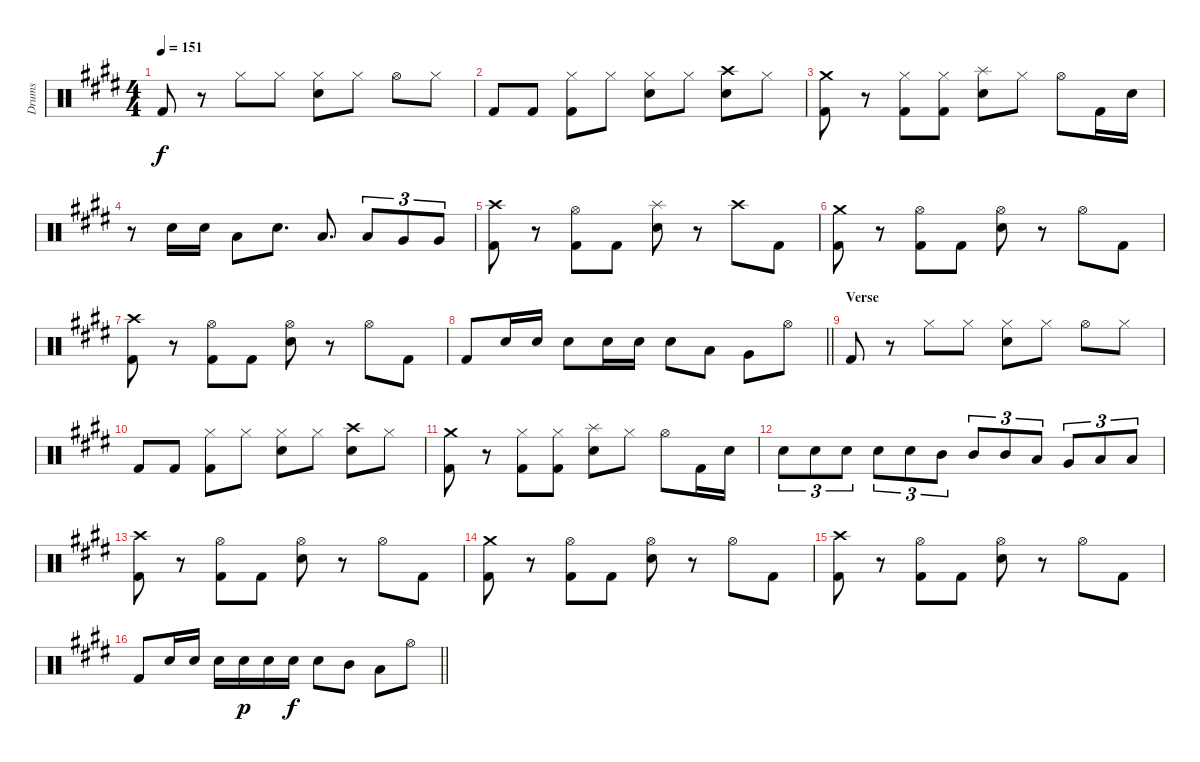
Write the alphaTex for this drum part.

\track ("Drums" "Drums") {instrument percussion}
\staff {score}
\articulation defaults
\ts (4 4)
\tempo 151
\clef neutral
\ks e "Kick (hit) 2".8{dy f}
r.8 "Hi-Hat (closed)".8 "Hi-Hat (closed)".8 ("Hi-Hat (closed)" "Electric Snare (hit)").8 "Hi-Hat (closed)".8 "Hi-Hat (open)".8 "Hi-Hat (closed)".8 |
"Kick (hit) 2".8 "Kick (hit) 2".8 ("Hi-Hat (closed)" "Kick (hit) 2").8 "Hi-Hat (closed)".8 ("Hi-Hat (closed)" "Electric Snare (hit)").8 "Hi-Hat (closed)".8 ("Crash high (hit)" "Electric Snare (hit)").8 "Hi-Hat (closed)".8 |
("Crash medium (hit)" "Kick (hit) 2").8 r.8 ("Hi-Hat (closed)" "Kick (hit) 2").8 ("Hi-Hat (closed)" "Kick (hit) 2").8 ("Splash (hit)" "Electric Snare (hit)").8 "Hi-Hat (closed)".8 "Hi-Hat (open)".8 "Kick (hit) 2".16 "Electric Snare (hit)".16 |
r.8 "Electric Snare (hit)".16 "Electric Snare (hit)".16 "Low Tom (hit)".8 "Electric Snare (hit)".8{d} "Low Tom (hit)".8{d} "Low Tom (hit)".8{tu (3 2)} "Very Low Tom (hit)".8{tu (3 2)} "Very Low Tom (hit)".8{tu (3 2)} |
("Crash high (hit)" "Kick (hit) 2").8 r.8 ("Hi-Hat (open)" "Kick (hit) 2").8 "Kick (hit) 2".8 ("Splash (hit)" "Electric Snare (hit)").8 r.8 "Crash high (hit)".8 "Kick (hit) 2".8 |
("Crash medium (hit)" "Kick (hit) 2").8 r.8 ("Hi-Hat (open)" "Kick (hit) 2").8 "Kick (hit) 2".8 ("Hi-Hat (open)" "Electric Snare (hit)").8 r.8 "Hi-Hat (open)".8 "Kick (hit) 2".8 |
("Crash high (hit)" "Kick (hit) 2").8 r.8 ("Hi-Hat (open)" "Kick (hit) 2").8 "Kick (hit) 2".8 ("Hi-Hat (open)" "Electric Snare (hit)").8 r.8 "Hi-Hat (open)".8 "Kick (hit) 2".8 |
\barLineRight lightlight "Kick (hit) 2".8 "Electric Snare (hit)".16 "Electric Snare (hit)".16 "Electric Snare (hit)".8 "Electric Snare (hit)".16 "Electric Snare (hit)".16 "Electric Snare (hit)".8 "Low Tom (hit)".8 "Very Low Tom (hit)".8 "Hi-Hat (open)".8
|
\section ("" "Verse")
"Kick (hit) 2".8 r.8 "Hi-Hat (closed)".8 "Hi-Hat (closed)".8 ("Hi-Hat (closed)" "Electric Snare (hit)").8 "Hi-Hat (closed)".8 "Hi-Hat (open)".8 "Hi-Hat (closed)".8 |
"Kick (hit) 2".8 "Kick (hit) 2".8 ("Hi-Hat (closed)" "Kick (hit) 2").8 "Hi-Hat (closed)".8 ("Hi-Hat (closed)" "Electric Snare (hit)").8 "Hi-Hat (closed)".8 ("Crash high (hit)" "Electric Snare (hit)").8 "Hi-Hat (closed)".8 |
("Crash medium (hit)" "Kick (hit) 2").8 r.8 ("Hi-Hat (closed)" "Kick (hit) 2").8 ("Hi-Hat (closed)" "Kick (hit) 2").8 ("Splash (hit)" "Electric Snare (hit)").8 "Hi-Hat (closed)".8 "Hi-Hat (open)".8 "Kick (hit) 2".16 "Electric Snare (hit)".16 |
"Electric Snare (hit)".8{tu (3 2)} "Electric Snare (hit)".8{tu (3 2)} "Electric Snare (hit)".8{tu (3 2)} "Electric Snare (hit)".8{tu (3 2)} "Electric Snare (hit)".8{tu (3 2)} "Mid Tom (hit)".8{tu (3 2)} "Mid Tom (hit)".8{tu (3 2)} "Mid Tom (hit)".8{tu (3 2)} "Low Tom (hit)".8{tu (3 2)} "Very Low Tom (hit)".8{tu (3 2)} "Low Tom (hit)".8{tu (3 2)} "Low Floor Tom (hit)".8{tu (3 2)} |
("Crash high (hit)" "Kick (hit) 2").8 r.8 ("Hi-Hat (open)" "Kick (hit) 2").8 "Kick (hit) 2".8 ("Hi-Hat (open)" "Electric Snare (hit)").8 r.8 "Hi-Hat (open)".8 "Kick (hit) 2".8 |
("Crash medium (hit)" "Kick (hit) 2").8 r.8 ("Hi-Hat (open)" "Kick (hit) 2").8 "Kick (hit) 2".8 ("Hi-Hat (open)" "Electric Snare (hit)").8 r.8 "Hi-Hat (open)".8 "Kick (hit) 2".8 |
("Crash high (hit)" "Kick (hit) 2").8 r.8 ("Hi-Hat (open)" "Kick (hit) 2").8 "Kick (hit) 2".8 ("Hi-Hat (open)" "Electric Snare (hit)").8 r.8 "Hi-Hat (open)".8 "Kick (hit) 2".8 |
\barLineRight lightlight "Kick (hit) 2".8 "Electric Snare (hit)".16 "Electric Snare (hit)".16 "Electric Snare (hit)".16 "Electric Snare (hit)".16{dy p} "Electric Snare (hit)".16 "Electric Snare (hit)".16{dy f} "Electric Snare (hit)".8 "Mid Tom (hit)".8 "Low Tom (hit)".8 "Hi-Hat (open)".8
